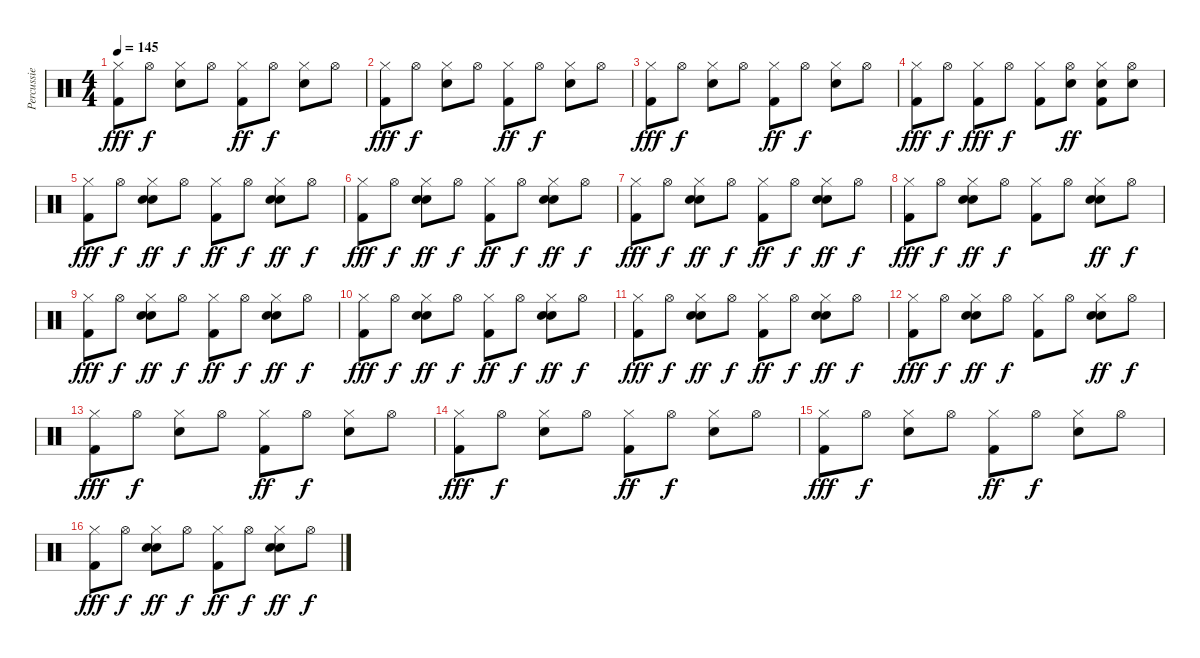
\track ("Percussie" "Percussie") {instrument percussion}
\staff {score}
\articulation defaults
\ts (4 4)
\tempo 145
\clef neutral
\ks c
("Kick (hit) 2" "Hi-Hat (closed)").8{dy fff} "Hi-Hat (open)".8{dy f} ("Electric Snare (hit)" "Hi-Hat (closed)").8 "Hi-Hat (open)".8 ("Kick (hit) 2" "Hi-Hat (closed)").8{dy ff} "Hi-Hat (open)".8{dy f} ("Electric Snare (hit)" "Hi-Hat (closed)").8 "Hi-Hat (open)".8 |
("Kick (hit) 2" "Hi-Hat (closed)").8{dy fff} "Hi-Hat (open)".8{dy f} ("Electric Snare (hit)" "Hi-Hat (closed)").8 "Hi-Hat (open)".8 ("Kick (hit) 2" "Hi-Hat (closed)").8{dy ff} "Hi-Hat (open)".8{dy f} ("Electric Snare (hit)" "Hi-Hat (closed)").8 "Hi-Hat (open)".8 |
("Kick (hit) 2" "Hi-Hat (closed)").8{dy fff} "Hi-Hat (open)".8{dy f} ("Electric Snare (hit)" "Hi-Hat (closed)").8 "Hi-Hat (open)".8 ("Kick (hit) 2" "Hi-Hat (closed)").8{dy ff} "Hi-Hat (open)".8{dy f} ("Electric Snare (hit)" "Hi-Hat (closed)").8 "Hi-Hat (open)".8 |
("Kick (hit) 2" "Hi-Hat (closed)").8{dy fff} "Hi-Hat (open)".8{dy f} ("Kick (hit) 2" "Hi-Hat (closed)").8{dy fff} "Hi-Hat (open)".8{dy f} ("Kick (hit) 2" "Hi-Hat (closed)").8 ("Hi-Hat (open)" "Electric Snare (hit)").8{dy ff} ("Kick (hit) 2" "Hi-Hat (closed)" "Electric Snare (hit)").8 ("Hi-Hat (open)" "Electric Snare (hit)").8 |
("Kick (hit) 2" "Hi-Hat (closed)").8{dy fff} "Hi-Hat (open)".8{dy f} ("Electric Snare (hit)" "Hi-Hat (closed)" "Hand Clap (hit)").8{dy ff} "Hi-Hat (open)".8{dy f} ("Kick (hit) 2" "Hi-Hat (closed)").8{dy ff} "Hi-Hat (open)".8{dy f} ("Electric Snare (hit)" "Hi-Hat (closed)" "Hand Clap (hit)").8{dy ff} "Hi-Hat (open)".8{dy f} |
("Kick (hit) 2" "Hi-Hat (closed)").8{dy fff} "Hi-Hat (open)".8{dy f} ("Electric Snare (hit)" "Hi-Hat (closed)" "Hand Clap (hit)").8{dy ff} "Hi-Hat (open)".8{dy f} ("Kick (hit) 2" "Hi-Hat (closed)").8{dy ff} "Hi-Hat (open)".8{dy f} ("Electric Snare (hit)" "Hi-Hat (closed)" "Hand Clap (hit)").8{dy ff} "Hi-Hat (open)".8{dy f} |
("Kick (hit) 2" "Hi-Hat (closed)").8{dy fff} "Hi-Hat (open)".8{dy f} ("Electric Snare (hit)" "Hi-Hat (closed)" "Hand Clap (hit)").8{dy ff} "Hi-Hat (open)".8{dy f} ("Kick (hit) 2" "Hi-Hat (closed)").8{dy ff} "Hi-Hat (open)".8{dy f} ("Electric Snare (hit)" "Hi-Hat (closed)" "Hand Clap (hit)").8{dy ff} "Hi-Hat (open)".8{dy f} |
("Kick (hit) 2" "Hi-Hat (closed)").8{dy fff} "Hi-Hat (open)".8{dy f} ("Electric Snare (hit)" "Hi-Hat (closed)" "Hand Clap (hit)").8{dy ff} "Hi-Hat (open)".8{dy f} ("Kick (hit) 2" "Hi-Hat (closed)").8 "Hi-Hat (open)".8 ("Electric Snare (hit)" "Hi-Hat (closed)" "Hand Clap (hit)").8{dy ff} "Hi-Hat (open)".8{dy f} |
("Kick (hit) 2" "Hi-Hat (closed)").8{dy fff} "Hi-Hat (open)".8{dy f} ("Electric Snare (hit)" "Hi-Hat (closed)" "Hand Clap (hit)").8{dy ff} "Hi-Hat (open)".8{dy f} ("Kick (hit) 2" "Hi-Hat (closed)").8{dy ff} "Hi-Hat (open)".8{dy f} ("Electric Snare (hit)" "Hi-Hat (closed)" "Hand Clap (hit)").8{dy ff} "Hi-Hat (open)".8{dy f} |
("Kick (hit) 2" "Hi-Hat (closed)").8{dy fff} "Hi-Hat (open)".8{dy f} ("Electric Snare (hit)" "Hi-Hat (closed)" "Hand Clap (hit)").8{dy ff} "Hi-Hat (open)".8{dy f} ("Kick (hit) 2" "Hi-Hat (closed)").8{dy ff} "Hi-Hat (open)".8{dy f} ("Electric Snare (hit)" "Hi-Hat (closed)" "Hand Clap (hit)").8{dy ff} "Hi-Hat (open)".8{dy f} |
("Kick (hit) 2" "Hi-Hat (closed)").8{dy fff} "Hi-Hat (open)".8{dy f} ("Electric Snare (hit)" "Hi-Hat (closed)" "Hand Clap (hit)").8{dy ff} "Hi-Hat (open)".8{dy f} ("Kick (hit) 2" "Hi-Hat (closed)").8{dy ff} "Hi-Hat (open)".8{dy f} ("Electric Snare (hit)" "Hi-Hat (closed)" "Hand Clap (hit)").8{dy ff} "Hi-Hat (open)".8{dy f} |
("Kick (hit) 2" "Hi-Hat (closed)").8{dy fff} "Hi-Hat (open)".8{dy f} ("Electric Snare (hit)" "Hi-Hat (closed)" "Hand Clap (hit)").8{dy ff} "Hi-Hat (open)".8{dy f} ("Kick (hit) 2" "Hi-Hat (closed)").8 "Hi-Hat (open)".8 ("Electric Snare (hit)" "Hi-Hat (closed)" "Hand Clap (hit)").8{dy ff} "Hi-Hat (open)".8{dy f} |
("Kick (hit) 2" "Hi-Hat (closed)").8{dy fff} "Hi-Hat (open)".8{dy f} ("Electric Snare (hit)" "Hi-Hat (closed)").8 "Hi-Hat (open)".8 ("Kick (hit) 2" "Hi-Hat (closed)").8{dy ff} "Hi-Hat (open)".8{dy f} ("Electric Snare (hit)" "Hi-Hat (closed)").8 "Hi-Hat (open)".8 |
("Kick (hit) 2" "Hi-Hat (closed)").8{dy fff} "Hi-Hat (open)".8{dy f} ("Electric Snare (hit)" "Hi-Hat (closed)").8 "Hi-Hat (open)".8 ("Kick (hit) 2" "Hi-Hat (closed)").8{dy ff} "Hi-Hat (open)".8{dy f} ("Electric Snare (hit)" "Hi-Hat (closed)").8 "Hi-Hat (open)".8 |
("Kick (hit) 2" "Hi-Hat (closed)").8{dy fff} "Hi-Hat (open)".8{dy f} ("Electric Snare (hit)" "Hi-Hat (closed)").8 "Hi-Hat (open)".8 ("Kick (hit) 2" "Hi-Hat (closed)").8{dy ff} "Hi-Hat (open)".8{dy f} ("Electric Snare (hit)" "Hi-Hat (closed)").8 "Hi-Hat (open)".8 |
("Kick (hit) 2" "Hi-Hat (closed)").8{dy fff} "Hi-Hat (open)".8{dy f} ("Electric Snare (hit)" "Hi-Hat (closed)" "Hand Clap (hit)").8{dy ff} "Hi-Hat (open)".8{dy f} ("Kick (hit) 2" "Hi-Hat (closed)").8{dy ff} "Hi-Hat (open)".8{dy f} ("Electric Snare (hit)" "Hi-Hat (closed)" "Hand Clap (hit)").8{dy ff} "Hi-Hat (open)".8{dy f}
